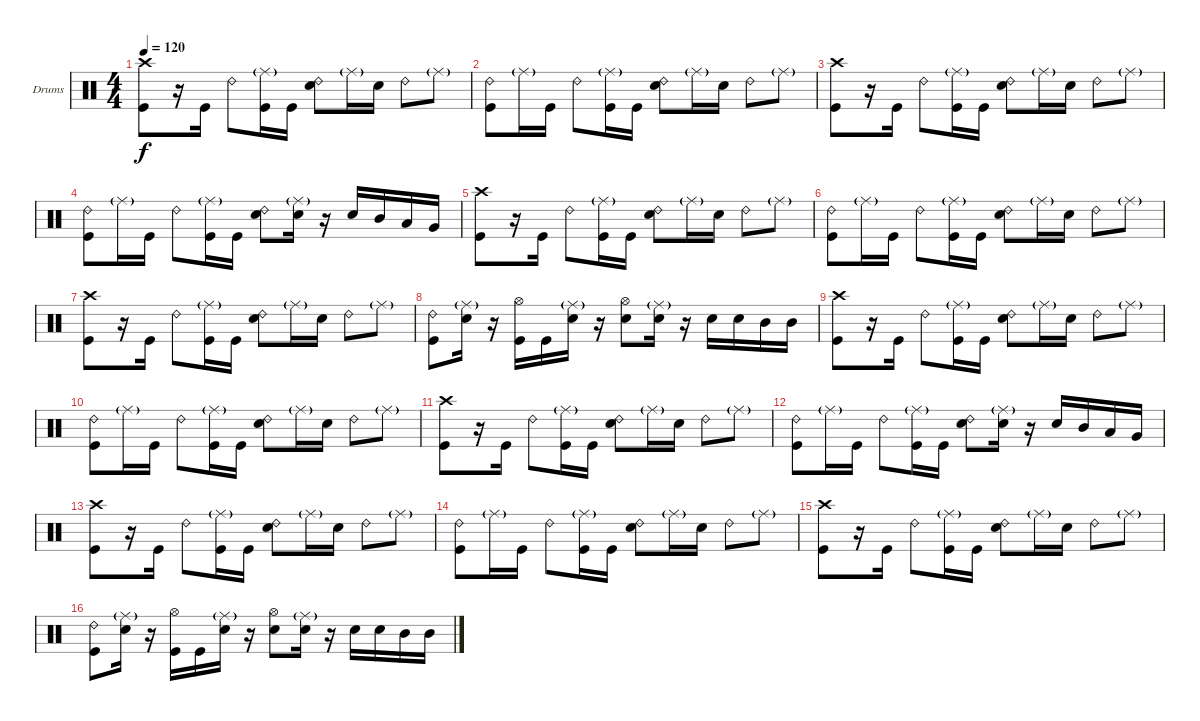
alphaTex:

\bracketExtendMode groupsimilarinstruments
\firstSystemTrackNameOrientation horizontal
\otherSystemsTrackNameOrientation horizontal
\track ("Drumkit" "Drums") {instrument percussion}
\staff {score}
\articulation defaults
\ts (4 4)
\tempo 120
\clef neutral
\ks c
("Crash high (hit)" "Kick (hit)").8{dy f} r.16 "Kick (hit)".16 "Ride (bell) 2".8 ("Kick (hit)" "Ride (middle)"{g}).16 "Kick (hit)".16 ("Ride (bell) 2" "Snare (hit) 2").8 "Ride (middle)"{g}.16 "Snare (hit) 2".16 "Ride (bell) 2".8 "Ride (middle)"{g}.8 |
("Kick (hit)" "Ride (bell) 2").8 "Ride (middle)"{g}.16 "Kick (hit)".16 "Ride (bell) 2".8 ("Kick (hit)" "Ride (middle)"{g}).16 "Kick (hit)".16 ("Ride (bell) 2" "Snare (hit) 2").8 "Ride (middle)"{g}.16 "Snare (hit) 2".16 "Ride (bell) 2".8 "Ride (middle)"{g}.8 |
("Crash high (hit)" "Kick (hit)").8 r.16 "Kick (hit)".16 "Ride (bell) 2".8 ("Kick (hit)" "Ride (middle)"{g}).16 "Kick (hit)".16 ("Ride (bell) 2" "Snare (hit) 2").8 "Ride (middle)"{g}.16 "Snare (hit) 2".16 "Ride (bell) 2".8 "Ride (middle)"{g}.8 |
("Kick (hit)" "Ride (bell) 2").8 "Ride (middle)"{g}.16 "Kick (hit)".16 "Ride (bell) 2".8 ("Kick (hit)" "Ride (middle)"{g}).16 "Kick (hit)".16 ("Ride (bell) 2" "Snare (hit) 2").8 ("Ride (middle)"{g} "Snare (hit) 2").16 r.16 "Snare (hit) 2".16 "Mid Tom (hit)".16 "Low Tom (hit)".16 "Very Low Tom (hit)".16 |
("Crash high (hit)" "Kick (hit)").8 r.16 "Kick (hit)".16 "Ride (bell) 2".8 ("Kick (hit)" "Ride (middle)"{g}).16 "Kick (hit)".16 ("Ride (bell) 2" "Snare (hit) 2").8 "Ride (middle)"{g}.16 "Snare (hit) 2".16 "Ride (bell) 2".8 "Ride (middle)"{g}.8 |
("Kick (hit)" "Ride (bell) 2").8 "Ride (middle)"{g}.16 "Kick (hit)".16 "Ride (bell) 2".8 ("Kick (hit)" "Ride (middle)"{g}).16 "Kick (hit)".16 ("Ride (bell) 2" "Snare (hit) 2").8 "Ride (middle)"{g}.16 "Snare (hit) 2".16 "Ride (bell) 2".8 "Ride (middle)"{g}.8 |
("Crash high (hit)" "Kick (hit)").8 r.16 "Kick (hit)".16 "Ride (bell) 2".8 ("Kick (hit)" "Ride (middle)"{g}).16 "Kick (hit)".16 ("Ride (bell) 2" "Snare (hit) 2").8 "Ride (middle)"{g}.16 "Snare (hit) 2".16 "Ride (bell) 2".8 "Ride (middle)"{g}.8 |
("Kick (hit)" "Ride (bell) 2").8 ("Ride (middle)"{g} "Snare (hit) 2").16 r.16 ("Kick (hit)" "Hi-Hat (open)").16 "Kick (hit)".16 ("Ride (middle)"{g} "Snare (hit) 2").16 r.16 ("Snare (hit) 2" "Hi-Hat (open)").8 ("Ride (middle)"{g} "Snare (hit) 2").16 r.16 "Snare (hit) 2".16 "Snare (hit) 2".16 "Mid Tom (hit)".16 "Mid Tom (hit)".16 |
("Crash high (hit)" "Kick (hit)").8 r.16 "Kick (hit)".16 "Ride (bell) 2".8 ("Kick (hit)" "Ride (middle)"{g}).16 "Kick (hit)".16 ("Ride (bell) 2" "Snare (hit) 2").8 "Ride (middle)"{g}.16 "Snare (hit) 2".16 "Ride (bell) 2".8 "Ride (middle)"{g}.8 |
("Kick (hit)" "Ride (bell) 2").8 "Ride (middle)"{g}.16 "Kick (hit)".16 "Ride (bell) 2".8 ("Kick (hit)" "Ride (middle)"{g}).16 "Kick (hit)".16 ("Ride (bell) 2" "Snare (hit) 2").8 "Ride (middle)"{g}.16 "Snare (hit) 2".16 "Ride (bell) 2".8 "Ride (middle)"{g}.8 |
("Crash high (hit)" "Kick (hit)").8 r.16 "Kick (hit)".16 "Ride (bell) 2".8 ("Kick (hit)" "Ride (middle)"{g}).16 "Kick (hit)".16 ("Ride (bell) 2" "Snare (hit) 2").8 "Ride (middle)"{g}.16 "Snare (hit) 2".16 "Ride (bell) 2".8 "Ride (middle)"{g}.8 |
("Kick (hit)" "Ride (bell) 2").8 "Ride (middle)"{g}.16 "Kick (hit)".16 "Ride (bell) 2".8 ("Kick (hit)" "Ride (middle)"{g}).16 "Kick (hit)".16 ("Ride (bell) 2" "Snare (hit) 2").8 ("Ride (middle)"{g} "Snare (hit) 2").16 r.16 "Snare (hit) 2".16 "Mid Tom (hit)".16 "Low Tom (hit)".16 "Very Low Tom (hit)".16 |
("Crash high (hit)" "Kick (hit)").8 r.16 "Kick (hit)".16 "Ride (bell) 2".8 ("Kick (hit)" "Ride (middle)"{g}).16 "Kick (hit)".16 ("Ride (bell) 2" "Snare (hit) 2").8 "Ride (middle)"{g}.16 "Snare (hit) 2".16 "Ride (bell) 2".8 "Ride (middle)"{g}.8 |
("Kick (hit)" "Ride (bell) 2").8 "Ride (middle)"{g}.16 "Kick (hit)".16 "Ride (bell) 2".8 ("Kick (hit)" "Ride (middle)"{g}).16 "Kick (hit)".16 ("Ride (bell) 2" "Snare (hit) 2").8 "Ride (middle)"{g}.16 "Snare (hit) 2".16 "Ride (bell) 2".8 "Ride (middle)"{g}.8 |
("Crash high (hit)" "Kick (hit)").8 r.16 "Kick (hit)".16 "Ride (bell) 2".8 ("Kick (hit)" "Ride (middle)"{g}).16 "Kick (hit)".16 ("Ride (bell) 2" "Snare (hit) 2").8 "Ride (middle)"{g}.16 "Snare (hit) 2".16 "Ride (bell) 2".8 "Ride (middle)"{g}.8 |
("Kick (hit)" "Ride (bell) 2").8 ("Ride (middle)"{g} "Snare (hit) 2").16 r.16 ("Kick (hit)" "Hi-Hat (open)").16 "Kick (hit)".16 ("Ride (middle)"{g} "Snare (hit) 2").16 r.16 ("Snare (hit) 2" "Hi-Hat (open)").8 ("Ride (middle)"{g} "Snare (hit) 2").16 r.16 "Snare (hit) 2".16 "Snare (hit) 2".16 "Mid Tom (hit)".16 "Mid Tom (hit)".16
